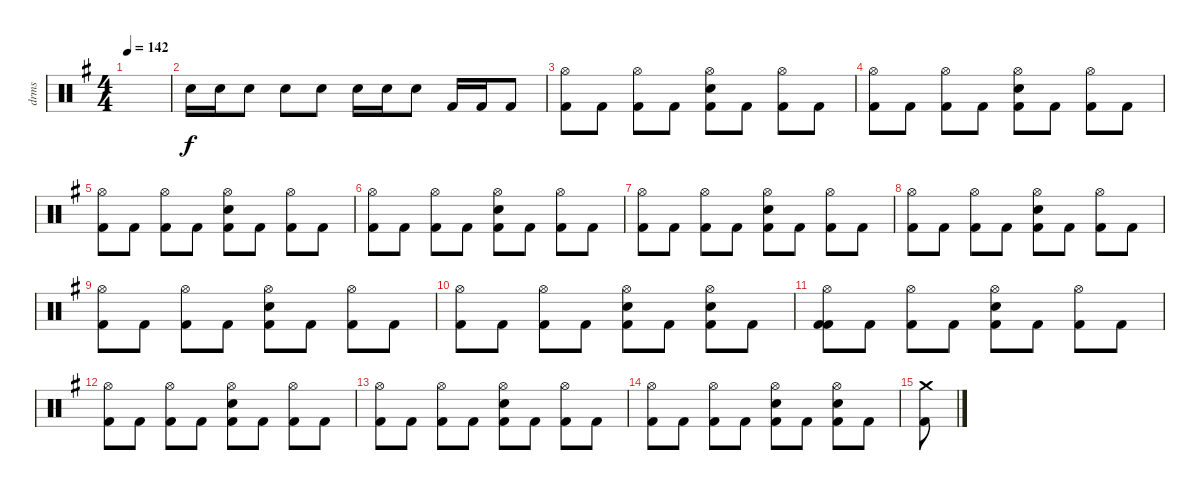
\track ("drms" "drms") {instrument percussion}
\staff {score}
\articulation defaults
\ts (4 4)
\tempo 142
\clef neutral
\ks g
|
"Snare (hit) 2".16 "Snare (hit) 2".16 "Snare (hit) 2".8 "Snare (hit) 2".8 "Snare (hit) 2".8 "Snare (hit) 2".16 "Snare (hit) 2".16 "Snare (hit) 2".8 "Kick (hit) 2".16 "Kick (hit) 2".16 "Kick (hit) 2".8 |
("Hi-Hat (open)" "Kick (hit) 2").8 "Kick (hit) 2".8 ("Hi-Hat (open)" "Kick (hit) 2").8 "Kick (hit) 2".8 ("Hi-Hat (open)" "Snare (hit) 2" "Kick (hit) 2").8 "Kick (hit) 2".8 ("Hi-Hat (open)" "Kick (hit) 2").8 "Kick (hit) 2".8 |
("Hi-Hat (open)" "Kick (hit) 2").8 "Kick (hit) 2".8 ("Hi-Hat (open)" "Kick (hit) 2").8 "Kick (hit) 2".8 ("Hi-Hat (open)" "Snare (hit) 2" "Kick (hit) 2").8 "Kick (hit) 2".8 ("Hi-Hat (open)" "Kick (hit) 2").8 "Kick (hit) 2".8 |
("Hi-Hat (open)" "Kick (hit) 2").8 "Kick (hit) 2".8 ("Hi-Hat (open)" "Kick (hit) 2").8 "Kick (hit) 2".8 ("Hi-Hat (open)" "Snare (hit) 2" "Kick (hit) 2").8 "Kick (hit) 2".8 ("Hi-Hat (open)" "Kick (hit) 2").8 "Kick (hit) 2".8 |
("Hi-Hat (open)" "Kick (hit) 2").8 "Kick (hit) 2".8 ("Hi-Hat (open)" "Kick (hit) 2").8 "Kick (hit) 2".8 ("Hi-Hat (open)" "Snare (hit) 2" "Kick (hit) 2").8 "Kick (hit) 2".8 ("Hi-Hat (open)" "Kick (hit) 2").8 "Kick (hit) 2".8 |
("Hi-Hat (open)" "Kick (hit) 2").8 "Kick (hit) 2".8 ("Hi-Hat (open)" "Kick (hit) 2").8 "Kick (hit) 2".8 ("Hi-Hat (open)" "Snare (hit) 2" "Kick (hit) 2").8 "Kick (hit) 2".8 ("Hi-Hat (open)" "Kick (hit) 2").8 "Kick (hit) 2".8 |
("Hi-Hat (open)" "Kick (hit) 2").8 "Kick (hit) 2".8 ("Hi-Hat (open)" "Kick (hit) 2").8 "Kick (hit) 2".8 ("Hi-Hat (open)" "Snare (hit) 2" "Kick (hit) 2").8 "Kick (hit) 2".8 ("Hi-Hat (open)" "Kick (hit) 2").8 "Kick (hit) 2".8 |
("Hi-Hat (open)" "Kick (hit) 2").8 "Kick (hit) 2".8 ("Hi-Hat (open)" "Kick (hit) 2").8 "Kick (hit) 2".8 ("Hi-Hat (open)" "Snare (hit) 2" "Kick (hit) 2").8 "Kick (hit) 2".8 ("Hi-Hat (open)" "Kick (hit) 2").8 "Kick (hit) 2".8 |
("Hi-Hat (open)" "Kick (hit) 2").8 "Kick (hit) 2".8 ("Hi-Hat (open)" "Kick (hit) 2").8 "Kick (hit) 2".8 ("Hi-Hat (open)" "Snare (hit) 2" "Kick (hit) 2").8 "Kick (hit) 2".8 ("Hi-Hat (open)" "Snare (hit) 2" "Kick (hit) 2").8 "Kick (hit) 2".8 |
("Hi-Hat (open)" "Kick (hit) 2" "Kick (hit) 2").8 "Kick (hit) 2".8 ("Hi-Hat (open)" "Kick (hit) 2").8 "Kick (hit) 2".8 ("Hi-Hat (open)" "Snare (hit) 2" "Kick (hit) 2").8 "Kick (hit) 2".8 ("Hi-Hat (open)" "Kick (hit) 2").8 "Kick (hit) 2".8 |
("Hi-Hat (open)" "Kick (hit) 2").8 "Kick (hit) 2".8 ("Hi-Hat (open)" "Kick (hit) 2").8 "Kick (hit) 2".8 ("Hi-Hat (open)" "Snare (hit) 2" "Kick (hit) 2").8 "Kick (hit) 2".8 ("Hi-Hat (open)" "Kick (hit) 2").8 "Kick (hit) 2".8 |
("Hi-Hat (open)" "Kick (hit) 2").8 "Kick (hit) 2".8 ("Hi-Hat (open)" "Kick (hit) 2").8 "Kick (hit) 2".8 ("Hi-Hat (open)" "Snare (hit) 2" "Kick (hit) 2").8 "Kick (hit) 2".8 ("Hi-Hat (open)" "Kick (hit) 2").8 "Kick (hit) 2".8 |
("Hi-Hat (open)" "Kick (hit) 2").8 "Kick (hit) 2".8 ("Hi-Hat (open)" "Kick (hit) 2").8 "Kick (hit) 2".8 ("Hi-Hat (open)" "Snare (hit) 2" "Kick (hit) 2").8 "Kick (hit) 2".8 ("Hi-Hat (open)" "Snare (hit) 2" "Kick (hit) 2").8 "Kick (hit) 2".8 |
("Crash medium (hit)" "Kick (hit) 2").8
